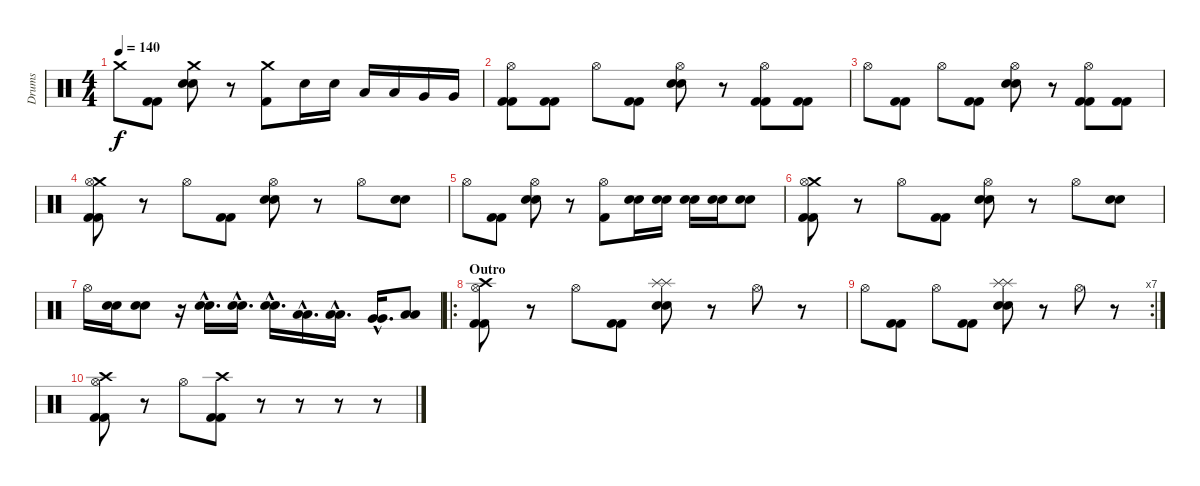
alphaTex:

\track ("Drums" "Drums") {instrument percussion}
\staff {score}
\articulation defaults
\ts (4 4)
\tempo 140
\clef neutral
\ks c "Crash medium (hit)".8{dy f}
("Kick (hit) 2" "Kick (hit) 2").8 ("Crash medium (hit)" "Electric Snare (hit)" "Electric Snare (hit)").8 r.8 ("Crash medium (hit)" "Kick (hit) 2").8 "Electric Snare (hit)".16 "Electric Snare (hit)".16 "Low Tom (hit)".16 "Low Tom (hit)".16 "Very Low Tom (hit)".16 "Very Low Tom (hit)".16 |
("Hi-Hat (open)" "Kick (hit) 2" "Kick (hit) 2").8 ("Kick (hit) 2" "Kick (hit) 2").8 "Hi-Hat (open)".8 ("Kick (hit) 2" "Kick (hit) 2").8 ("Hi-Hat (open)" "Electric Snare (hit)" "Electric Snare (hit)").8 r.8 ("Hi-Hat (open)" "Kick (hit) 2" "Kick (hit) 2").8 ("Kick (hit) 2" "Kick (hit) 2").8 |
"Hi-Hat (open)".8 ("Kick (hit) 2" "Kick (hit) 2").8 "Hi-Hat (open)".8 ("Kick (hit) 2" "Kick (hit) 2").8 ("Hi-Hat (open)" "Electric Snare (hit)" "Electric Snare (hit)").8 r.8 ("Hi-Hat (open)" "Kick (hit) 2" "Kick (hit) 2").8 ("Kick (hit) 2" "Kick (hit) 2").8 |
("Crash medium (hit)" "Hi-Hat (open)" "Kick (hit) 2" "Kick (hit) 2").8 r.8 "Hi-Hat (open)".8 ("Kick (hit) 2" "Kick (hit) 2").8 ("Hi-Hat (open)" "Electric Snare (hit)" "Electric Snare (hit)").8 r.8 "Hi-Hat (open)".8 ("Electric Snare (hit)" "Electric Snare (hit)").8 |
"Hi-Hat (open)".8 ("Kick (hit) 2" "Kick (hit) 2").8 ("Hi-Hat (open)" "Electric Snare (hit)" "Electric Snare (hit)").8 r.8 ("Hi-Hat (open)" "Kick (hit) 2").8 ("Electric Snare (hit)" "Electric Snare (hit)").16 ("Electric Snare (hit)" "Electric Snare (hit)").16 ("Electric Snare (hit)" "Electric Snare (hit)").16 ("Electric Snare (hit)" "Electric Snare (hit)").16 ("Electric Snare (hit)" "Electric Snare (hit)").8 |
("Crash medium (hit)" "Hi-Hat (open)" "Kick (hit) 2" "Kick (hit) 2").8 r.8 "Hi-Hat (open)".8 ("Kick (hit) 2" "Kick (hit) 2").8 ("Hi-Hat (open)" "Electric Snare (hit)" "Electric Snare (hit)").8 r.8 "Hi-Hat (open)".8 ("Electric Snare (hit)" "Electric Snare (hit)").8 |
"Hi-Hat (open)".16 ("Electric Snare (hit)" "Electric Snare (hit)").16 ("Electric Snare (hit)" "Electric Snare (hit)").8 r.16 ("Electric Snare (hit)"{hac} "Electric Snare (hit)"{hac}).16{d} ("Electric Snare (hit)"{hac} "Electric Snare (hit)"{hac}).16{d} ("Electric Snare (hit)"{hac} "Electric Snare (hit)"{hac}).16{d} ("Low Tom (hit)"{hac} "Low Tom (hit)"{hac}).16{d} ("Low Tom (hit)"{hac} "Low Tom (hit)"{hac}).16{d} ("Very Low Tom (hit)"{hac} "Very Low Tom (hit)"{hac}).16{d} ("Low Floor Tom (hit)" "Low Floor Tom (hit)").8 |
\ro
\section ("" "Outro")
("Crash high (hit)" "Hi-Hat (open)" "Kick (hit) 2" "Kick (hit) 2").8 r.8 "Hi-Hat (open)".8 ("Kick (hit) 2" "Kick (hit) 2").8 ("Splash (hit)" "Splash (hit)" "Electric Snare (hit)" "Electric Snare (hit)").8 r.8 "Hi-Hat (open)".8 r.8 |
\rc 7 "Hi-Hat (open)".8
("Kick (hit) 2" "Kick (hit) 2").8 "Hi-Hat (open)".8 ("Kick (hit) 2" "Kick (hit) 2").8 ("Splash (hit)" "Splash (hit)" "Electric Snare (hit)" "Electric Snare (hit)").8 r.8 "Hi-Hat (open)".8 r.8 |
("Crash high (hit)" "Hi-Hat (open)" "Kick (hit) 2" "Kick (hit) 2").8 r.8 "Hi-Hat (open)".8 ("Crash high (hit)" "Kick (hit) 2" "Kick (hit) 2").8 r.8 r.8 r.8 r.8
